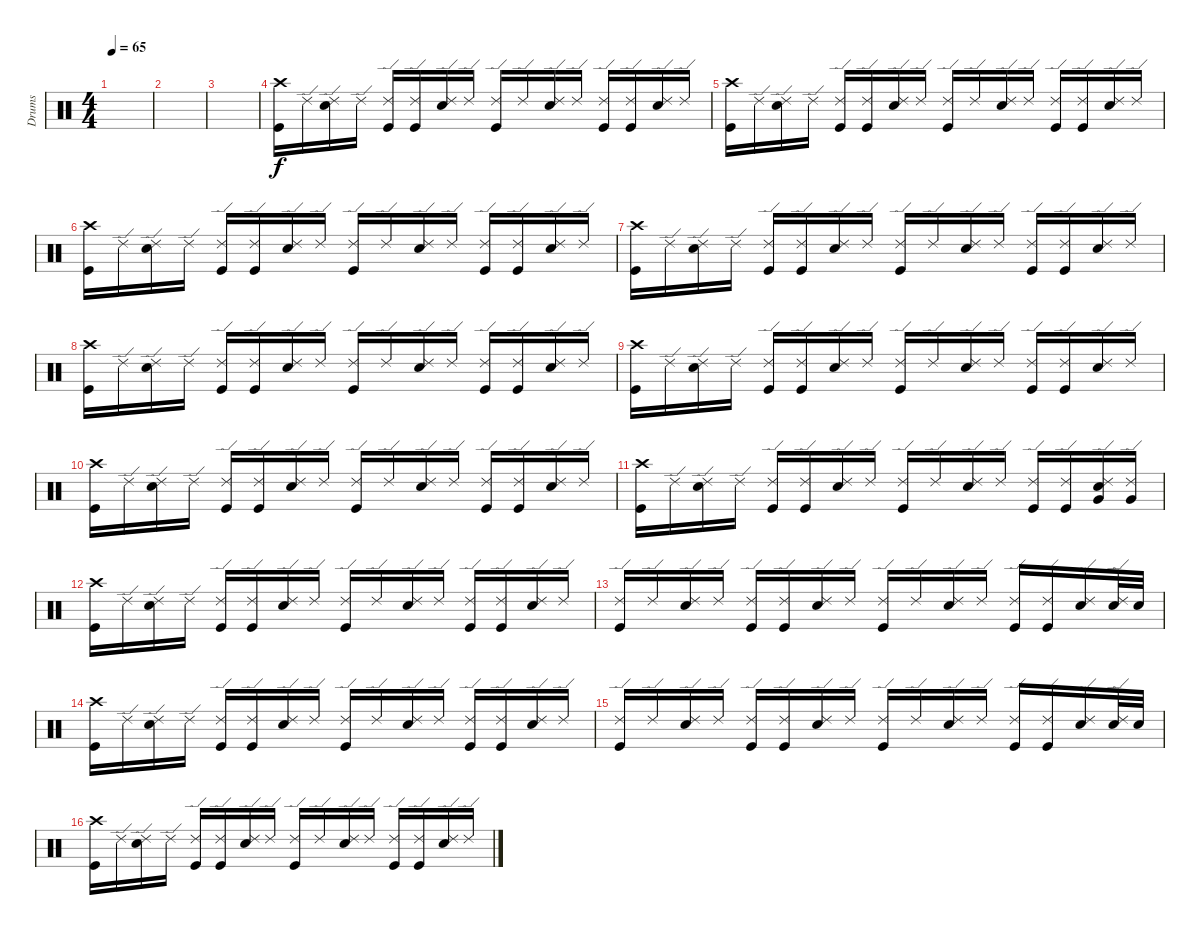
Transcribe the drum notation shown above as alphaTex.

\track ("Drums" "Drums") {instrument percussion}
\staff {score}
\articulation defaults
\ts (4 4)
\tempo 65
\clef neutral
\ks c
|
|
|
("Crash high (hit)" "Kick (hit)").16 "Ride (edge) 2".16 ("Ride (edge) 2" "Snare (hit) 2").16 "Ride (edge) 2".16 ("Ride (edge) 2" "Kick (hit)").16 ("Ride (edge) 2" "Kick (hit)").16 ("Ride (edge) 2" "Snare (hit) 2").16 "Ride (edge) 2".16 ("Ride (edge) 2" "Kick (hit)").16 "Ride (edge) 2".16 ("Ride (edge) 2" "Snare (hit) 2").16 "Ride (edge) 2".16 ("Ride (edge) 2" "Kick (hit)").16 ("Ride (edge) 2" "Kick (hit)").16 ("Ride (edge) 2" "Snare (hit) 2").16 "Ride (edge) 2".16 |
("Crash high (hit)" "Kick (hit)").16 "Ride (edge) 2".16 ("Ride (edge) 2" "Snare (hit) 2").16 "Ride (edge) 2".16 ("Ride (edge) 2" "Kick (hit)").16 ("Ride (edge) 2" "Kick (hit)").16 ("Ride (edge) 2" "Snare (hit) 2").16 "Ride (edge) 2".16 ("Ride (edge) 2" "Kick (hit)").16 "Ride (edge) 2".16 ("Ride (edge) 2" "Snare (hit) 2").16 "Ride (edge) 2".16 ("Ride (edge) 2" "Kick (hit)").16 ("Ride (edge) 2" "Kick (hit)").16 ("Ride (edge) 2" "Snare (hit) 2").16 "Ride (edge) 2".16 |
("Crash high (hit)" "Kick (hit)").16 "Ride (edge) 2".16 ("Ride (edge) 2" "Snare (hit) 2").16 "Ride (edge) 2".16 ("Ride (edge) 2" "Kick (hit)").16 ("Ride (edge) 2" "Kick (hit)").16 ("Ride (edge) 2" "Snare (hit) 2").16 "Ride (edge) 2".16 ("Ride (edge) 2" "Kick (hit)").16 "Ride (edge) 2".16 ("Ride (edge) 2" "Snare (hit) 2").16 "Ride (edge) 2".16 ("Ride (edge) 2" "Kick (hit)").16 ("Ride (edge) 2" "Kick (hit)").16 ("Ride (edge) 2" "Snare (hit) 2").16 "Ride (edge) 2".16 |
("Crash high (hit)" "Kick (hit)").16 "Ride (edge) 2".16 ("Ride (edge) 2" "Snare (hit) 2").16 "Ride (edge) 2".16 ("Ride (edge) 2" "Kick (hit)").16 ("Ride (edge) 2" "Kick (hit)").16 ("Ride (edge) 2" "Snare (hit) 2").16 "Ride (edge) 2".16 ("Ride (edge) 2" "Kick (hit)").16 "Ride (edge) 2".16 ("Ride (edge) 2" "Snare (hit) 2").16 "Ride (edge) 2".16 ("Ride (edge) 2" "Kick (hit)").16 ("Ride (edge) 2" "Kick (hit)").16 ("Ride (edge) 2" "Snare (hit) 2").16 "Ride (edge) 2".16 |
("Crash high (hit)" "Kick (hit)").16 "Ride (edge) 2".16 ("Ride (edge) 2" "Snare (hit) 2").16 "Ride (edge) 2".16 ("Ride (edge) 2" "Kick (hit)").16 ("Ride (edge) 2" "Kick (hit)").16 ("Ride (edge) 2" "Snare (hit) 2").16 "Ride (edge) 2".16 ("Ride (edge) 2" "Kick (hit)").16 "Ride (edge) 2".16 ("Ride (edge) 2" "Snare (hit) 2").16 "Ride (edge) 2".16 ("Ride (edge) 2" "Kick (hit)").16 ("Ride (edge) 2" "Kick (hit)").16 ("Ride (edge) 2" "Snare (hit) 2").16 "Ride (edge) 2".16 |
("Crash high (hit)" "Kick (hit)").16 "Ride (edge) 2".16 ("Ride (edge) 2" "Snare (hit) 2").16 "Ride (edge) 2".16 ("Ride (edge) 2" "Kick (hit)").16 ("Ride (edge) 2" "Kick (hit)").16 ("Ride (edge) 2" "Snare (hit) 2").16 "Ride (edge) 2".16 ("Ride (edge) 2" "Kick (hit)").16 "Ride (edge) 2".16 ("Ride (edge) 2" "Snare (hit) 2").16 "Ride (edge) 2".16 ("Ride (edge) 2" "Kick (hit)").16 ("Ride (edge) 2" "Kick (hit)").16 ("Ride (edge) 2" "Snare (hit) 2").16 "Ride (edge) 2".16 |
("Crash high (hit)" "Kick (hit)").16 "Ride (edge) 2".16 ("Ride (edge) 2" "Snare (hit) 2").16 "Ride (edge) 2".16 ("Ride (edge) 2" "Kick (hit)").16 ("Ride (edge) 2" "Kick (hit)").16 ("Ride (edge) 2" "Snare (hit) 2").16 "Ride (edge) 2".16 ("Ride (edge) 2" "Kick (hit)").16 "Ride (edge) 2".16 ("Ride (edge) 2" "Snare (hit) 2").16 "Ride (edge) 2".16 ("Ride (edge) 2" "Kick (hit)").16 ("Ride (edge) 2" "Kick (hit)").16 ("Ride (edge) 2" "Snare (hit) 2").16 "Ride (edge) 2".16 |
("Crash high (hit)" "Kick (hit)").16 "Ride (edge) 2".16 ("Ride (edge) 2" "Snare (hit) 2").16 "Ride (edge) 2".16 ("Ride (edge) 2" "Kick (hit)").16 ("Ride (edge) 2" "Kick (hit)").16 ("Ride (edge) 2" "Snare (hit) 2").16 "Ride (edge) 2".16 ("Ride (edge) 2" "Kick (hit)").16 "Ride (edge) 2".16 ("Ride (edge) 2" "Snare (hit) 2").16 "Ride (edge) 2".16 ("Ride (edge) 2" "Kick (hit)").16 ("Ride (edge) 2" "Kick (hit)").16 ("Ride (edge) 2" "Snare (hit) 2" "Very Low Tom (hit)").16 ("Ride (edge) 2" "Very Low Tom (hit)").16 |
("Crash high (hit)" "Kick (hit)").16 "Ride (edge) 2".16 ("Ride (edge) 2" "Snare (hit) 2").16 "Ride (edge) 2".16 ("Ride (edge) 2" "Kick (hit)").16 ("Ride (edge) 2" "Kick (hit)").16 ("Ride (edge) 2" "Snare (hit) 2").16 "Ride (edge) 2".16 ("Ride (edge) 2" "Kick (hit)").16 "Ride (edge) 2".16 ("Ride (edge) 2" "Snare (hit) 2").16 "Ride (edge) 2".16 ("Ride (edge) 2" "Kick (hit)").16 ("Ride (edge) 2" "Kick (hit)").16 ("Ride (edge) 2" "Snare (hit) 2").16 "Ride (edge) 2".16 |
("Ride (edge) 2" "Kick (hit)").16 "Ride (edge) 2".16 ("Ride (edge) 2" "Snare (hit) 2").16 "Ride (edge) 2".16 ("Ride (edge) 2" "Kick (hit)").16 ("Ride (edge) 2" "Kick (hit)").16 ("Ride (edge) 2" "Snare (hit) 2").16 "Ride (edge) 2".16 ("Ride (edge) 2" "Kick (hit)").16 "Ride (edge) 2".16 ("Ride (edge) 2" "Snare (hit) 2").16 "Ride (edge) 2".16 ("Ride (edge) 2" "Kick (hit)").16 ("Ride (edge) 2" "Kick (hit)").16 ("Ride (edge) 2" "Snare (hit) 2").16 ("Ride (edge) 2" "Snare (hit) 2").32 "Snare (hit) 2".32 |
("Crash high (hit)" "Kick (hit)").16 "Ride (edge) 2".16 ("Ride (edge) 2" "Snare (hit) 2").16 "Ride (edge) 2".16 ("Ride (edge) 2" "Kick (hit)").16 ("Ride (edge) 2" "Kick (hit)").16 ("Ride (edge) 2" "Snare (hit) 2").16 "Ride (edge) 2".16 ("Ride (edge) 2" "Kick (hit)").16 "Ride (edge) 2".16 ("Ride (edge) 2" "Snare (hit) 2").16 "Ride (edge) 2".16 ("Ride (edge) 2" "Kick (hit)").16 ("Ride (edge) 2" "Kick (hit)").16 ("Ride (edge) 2" "Snare (hit) 2").16 "Ride (edge) 2".16 |
("Ride (edge) 2" "Kick (hit)").16 "Ride (edge) 2".16 ("Ride (edge) 2" "Snare (hit) 2").16 "Ride (edge) 2".16 ("Ride (edge) 2" "Kick (hit)").16 ("Ride (edge) 2" "Kick (hit)").16 ("Ride (edge) 2" "Snare (hit) 2").16 "Ride (edge) 2".16 ("Ride (edge) 2" "Kick (hit)").16 "Ride (edge) 2".16 ("Ride (edge) 2" "Snare (hit) 2").16 "Ride (edge) 2".16 ("Ride (edge) 2" "Kick (hit)").16 ("Ride (edge) 2" "Kick (hit)").16 ("Ride (edge) 2" "Snare (hit) 2").16 ("Ride (edge) 2" "Snare (hit) 2").32 "Snare (hit) 2".32 |
("Crash high (hit)" "Kick (hit)").16 "Ride (edge) 2".16 ("Ride (edge) 2" "Snare (hit) 2").16 "Ride (edge) 2".16 ("Ride (edge) 2" "Kick (hit)").16 ("Ride (edge) 2" "Kick (hit)").16 ("Ride (edge) 2" "Snare (hit) 2").16 "Ride (edge) 2".16 ("Ride (edge) 2" "Kick (hit)").16 "Ride (edge) 2".16 ("Ride (edge) 2" "Snare (hit) 2").16 "Ride (edge) 2".16 ("Ride (edge) 2" "Kick (hit)").16 ("Ride (edge) 2" "Kick (hit)").16 ("Ride (edge) 2" "Snare (hit) 2").16 "Ride (edge) 2".16
